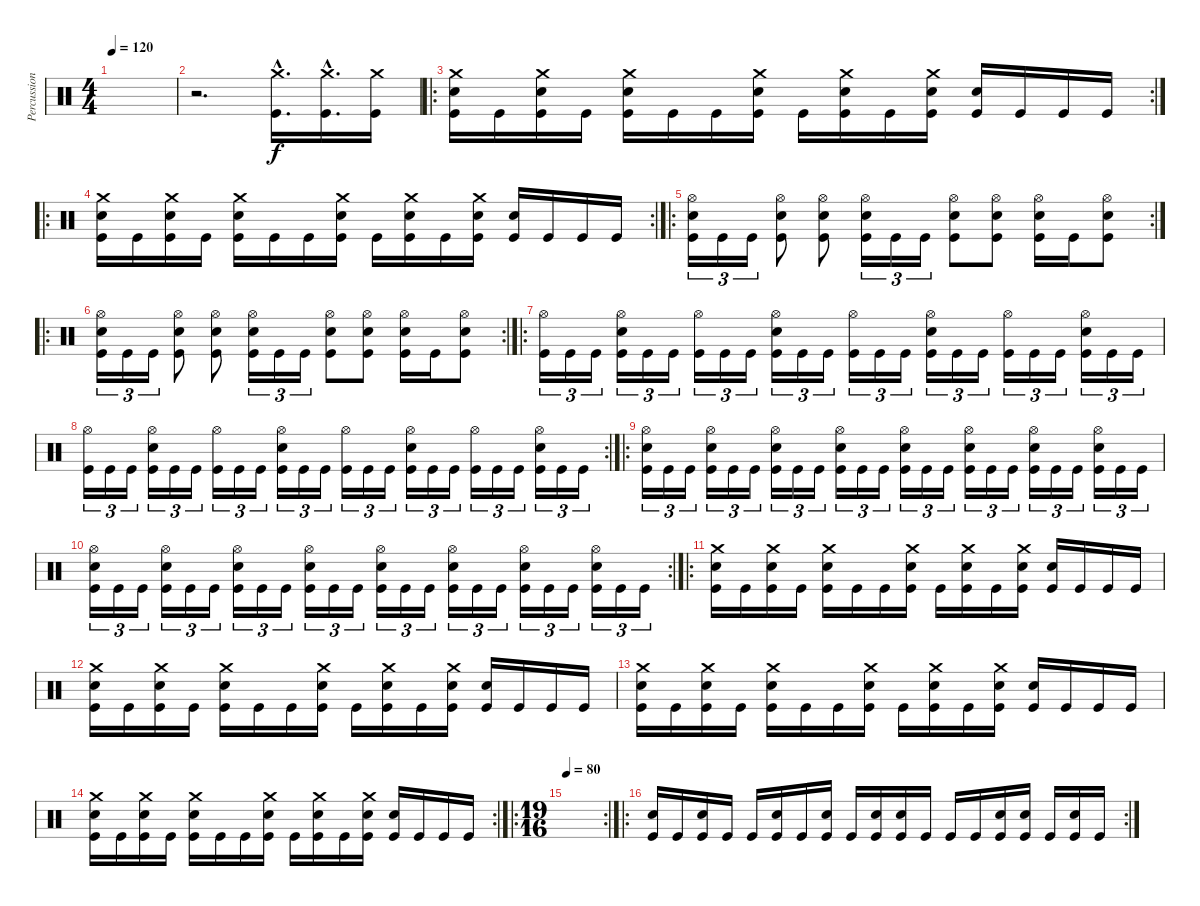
\track ("Percussion" "Percussion") {instrument percussion}
\staff {score}
\articulation defaults
\ts (4 4)
\tempo 120
\clef neutral
\ks c
|
r.2{d} ("Crash medium (hit)"{hac} "Kick (hit)"{hac}).16{d} ("Crash medium (hit)"{hac} "Kick (hit)"{hac}).16{d} ("Crash medium (hit)" "Kick (hit)").16 |
\ro
\rc 2
("Crash medium (hit)" "Snare (hit) 2" "Kick (hit)").16 "Kick (hit)".16 ("Crash medium (hit)" "Snare (hit) 2" "Kick (hit)").16 "Kick (hit)".16 ("Crash medium (hit)" "Snare (hit) 2" "Kick (hit)").16 "Kick (hit)".16 "Kick (hit)".16 ("Crash medium (hit)" "Snare (hit) 2" "Kick (hit)").16 "Kick (hit)".16 ("Crash medium (hit)" "Snare (hit) 2" "Kick (hit)").16 "Kick (hit)".16 ("Crash medium (hit)" "Snare (hit) 2" "Kick (hit)").16 ("Snare (hit) 2" "Kick (hit)").16 "Kick (hit)".16 "Kick (hit)".16 "Kick (hit)".16 |
\ro
\rc 2
("Crash medium (hit)" "Snare (hit) 2" "Kick (hit)").16 "Kick (hit)".16 ("Crash medium (hit)" "Snare (hit) 2" "Kick (hit)").16 "Kick (hit)".16 ("Crash medium (hit)" "Snare (hit) 2" "Kick (hit)").16 "Kick (hit)".16 "Kick (hit)".16 ("Crash medium (hit)" "Snare (hit) 2" "Kick (hit)").16 "Kick (hit)".16 ("Crash medium (hit)" "Snare (hit) 2" "Kick (hit)").16 "Kick (hit)".16 ("Crash medium (hit)" "Snare (hit) 2" "Kick (hit)").16 ("Snare (hit) 2" "Kick (hit)").16 "Kick (hit)".16 "Kick (hit)".16 "Kick (hit)".16 |
\ro
\rc 2
("Hi-Hat (open)" "Snare (hit) 2" "Kick (hit)").16{tu (3 2)} "Kick (hit)".16{tu (3 2)} "Kick (hit)".16{tu (3 2)} ("Hi-Hat (open)" "Snare (hit) 2" "Kick (hit)").8 ("Hi-Hat (open)" "Snare (hit) 2" "Kick (hit)").8 ("Hi-Hat (open)" "Snare (hit) 2" "Kick (hit)").16{tu (3 2)} "Kick (hit)".16{tu (3 2)} "Kick (hit)".16{tu (3 2)} ("Hi-Hat (open)" "Snare (hit) 2" "Kick (hit)").8 ("Hi-Hat (open)" "Snare (hit) 2" "Kick (hit)").8 ("Hi-Hat (open)" "Snare (hit) 2" "Kick (hit)").16 "Kick (hit)".16 ("Hi-Hat (open)" "Snare (hit) 2" "Kick (hit)").8 |
\ro
\rc 2
("Hi-Hat (open)" "Snare (hit) 2" "Kick (hit)").16{tu (3 2)} "Kick (hit)".16{tu (3 2)} "Kick (hit)".16{tu (3 2)} ("Hi-Hat (open)" "Snare (hit) 2" "Kick (hit)").8 ("Hi-Hat (open)" "Snare (hit) 2" "Kick (hit)").8 ("Hi-Hat (open)" "Snare (hit) 2" "Kick (hit)").16{tu (3 2)} "Kick (hit)".16{tu (3 2)} "Kick (hit)".16{tu (3 2)} ("Hi-Hat (open)" "Snare (hit) 2" "Kick (hit)").8 ("Hi-Hat (open)" "Snare (hit) 2" "Kick (hit)").8 ("Hi-Hat (open)" "Snare (hit) 2" "Kick (hit)").16 "Kick (hit)".16 ("Hi-Hat (open)" "Snare (hit) 2" "Kick (hit)").8 |
\ro
("Hi-Hat (open)" "Kick (hit)").16{tu (3 2)} "Kick (hit)".16{tu (3 2)} "Kick (hit)".16{tu (3 2)} ("Hi-Hat (open)" "Snare (hit) 2" "Kick (hit)").16{tu (3 2)} "Kick (hit)".16{tu (3 2)} "Kick (hit)".16{tu (3 2)} ("Hi-Hat (open)" "Kick (hit)").16{tu (3 2)} "Kick (hit)".16{tu (3 2)} "Kick (hit)".16{tu (3 2)} ("Hi-Hat (open)" "Snare (hit) 2" "Kick (hit)").16{tu (3 2)} "Kick (hit)".16{tu (3 2)} "Kick (hit)".16{tu (3 2)} ("Hi-Hat (open)" "Kick (hit)").16{tu (3 2)} "Kick (hit)".16{tu (3 2)} "Kick (hit)".16{tu (3 2)} ("Hi-Hat (open)" "Snare (hit) 2" "Kick (hit)").16{tu (3 2)} "Kick (hit)".16{tu (3 2)} "Kick (hit)".16{tu (3 2)} ("Hi-Hat (open)" "Kick (hit)").16{tu (3 2)} "Kick (hit)".16{tu (3 2)} "Kick (hit)".16{tu (3 2)} ("Hi-Hat (open)" "Snare (hit) 2" "Kick (hit)").16{tu (3 2)} "Kick (hit)".16{tu (3 2)} "Kick (hit)".16{tu (3 2)} |
\rc 2
("Hi-Hat (open)" "Kick (hit)").16{tu (3 2)} "Kick (hit)".16{tu (3 2)} "Kick (hit)".16{tu (3 2)} ("Hi-Hat (open)" "Snare (hit) 2" "Kick (hit)").16{tu (3 2)} "Kick (hit)".16{tu (3 2)} "Kick (hit)".16{tu (3 2)} ("Hi-Hat (open)" "Kick (hit)").16{tu (3 2)} "Kick (hit)".16{tu (3 2)} "Kick (hit)".16{tu (3 2)} ("Hi-Hat (open)" "Snare (hit) 2" "Kick (hit)").16{tu (3 2)} "Kick (hit)".16{tu (3 2)} "Kick (hit)".16{tu (3 2)} ("Hi-Hat (open)" "Kick (hit)").16{tu (3 2)} "Kick (hit)".16{tu (3 2)} "Kick (hit)".16{tu (3 2)} ("Hi-Hat (open)" "Snare (hit) 2" "Kick (hit)").16{tu (3 2)} "Kick (hit)".16{tu (3 2)} "Kick (hit)".16{tu (3 2)} ("Hi-Hat (open)" "Kick (hit)").16{tu (3 2)} "Kick (hit)".16{tu (3 2)} "Kick (hit)".16{tu (3 2)} ("Hi-Hat (open)" "Snare (hit) 2" "Kick (hit)").16{tu (3 2)} "Kick (hit)".16{tu (3 2)} "Kick (hit)".16{tu (3 2)} |
\ro
("Hi-Hat (open)" "Snare (hit) 2" "Kick (hit)").16{tu (3 2)} "Kick (hit)".16{tu (3 2)} "Kick (hit)".16{tu (3 2)} ("Hi-Hat (open)" "Snare (hit) 2" "Kick (hit)").16{tu (3 2)} "Kick (hit)".16{tu (3 2)} "Kick (hit)".16{tu (3 2)} ("Hi-Hat (open)" "Snare (hit) 2" "Kick (hit)").16{tu (3 2)} "Kick (hit)".16{tu (3 2)} "Kick (hit)".16{tu (3 2)} ("Hi-Hat (open)" "Snare (hit) 2" "Kick (hit)").16{tu (3 2)} "Kick (hit)".16{tu (3 2)} "Kick (hit)".16{tu (3 2)} ("Hi-Hat (open)" "Snare (hit) 2" "Kick (hit)").16{tu (3 2)} "Kick (hit)".16{tu (3 2)} "Kick (hit)".16{tu (3 2)} ("Hi-Hat (open)" "Snare (hit) 2" "Kick (hit)").16{tu (3 2)} "Kick (hit)".16{tu (3 2)} "Kick (hit)".16{tu (3 2)} ("Hi-Hat (open)" "Snare (hit) 2" "Kick (hit)").16{tu (3 2)} "Kick (hit)".16{tu (3 2)} "Kick (hit)".16{tu (3 2)} ("Hi-Hat (open)" "Snare (hit) 2" "Kick (hit)").16{tu (3 2)} "Kick (hit)".16{tu (3 2)} "Kick (hit)".16{tu (3 2)} |
\rc 2
("Hi-Hat (open)" "Snare (hit) 2" "Kick (hit)").16{tu (3 2)} "Kick (hit)".16{tu (3 2)} "Kick (hit)".16{tu (3 2)} ("Hi-Hat (open)" "Snare (hit) 2" "Kick (hit)").16{tu (3 2)} "Kick (hit)".16{tu (3 2)} "Kick (hit)".16{tu (3 2)} ("Hi-Hat (open)" "Snare (hit) 2" "Kick (hit)").16{tu (3 2)} "Kick (hit)".16{tu (3 2)} "Kick (hit)".16{tu (3 2)} ("Hi-Hat (open)" "Snare (hit) 2" "Kick (hit)").16{tu (3 2)} "Kick (hit)".16{tu (3 2)} "Kick (hit)".16{tu (3 2)} ("Hi-Hat (open)" "Snare (hit) 2" "Kick (hit)").16{tu (3 2)} "Kick (hit)".16{tu (3 2)} "Kick (hit)".16{tu (3 2)} ("Hi-Hat (open)" "Snare (hit) 2" "Kick (hit)").16{tu (3 2)} "Kick (hit)".16{tu (3 2)} "Kick (hit)".16{tu (3 2)} ("Hi-Hat (open)" "Snare (hit) 2" "Kick (hit)").16{tu (3 2)} "Kick (hit)".16{tu (3 2)} "Kick (hit)".16{tu (3 2)} ("Hi-Hat (open)" "Snare (hit) 2" "Kick (hit)").16{tu (3 2)} "Kick (hit)".16{tu (3 2)} "Kick (hit)".16{tu (3 2)} |
\ro
("Crash medium (hit)" "Snare (hit) 2" "Kick (hit)").16 "Kick (hit)".16 ("Crash medium (hit)" "Snare (hit) 2" "Kick (hit)").16 "Kick (hit)".16 ("Crash medium (hit)" "Snare (hit) 2" "Kick (hit)").16 "Kick (hit)".16 "Kick (hit)".16 ("Crash medium (hit)" "Snare (hit) 2" "Kick (hit)").16 "Kick (hit)".16 ("Crash medium (hit)" "Snare (hit) 2" "Kick (hit)").16 "Kick (hit)".16 ("Crash medium (hit)" "Snare (hit) 2" "Kick (hit)").16 ("Snare (hit) 2" "Kick (hit)").16 "Kick (hit)".16 "Kick (hit)".16 "Kick (hit)".16 |
("Crash medium (hit)" "Snare (hit) 2" "Kick (hit)").16 "Kick (hit)".16 ("Crash medium (hit)" "Snare (hit) 2" "Kick (hit)").16 "Kick (hit)".16 ("Crash medium (hit)" "Snare (hit) 2" "Kick (hit)").16 "Kick (hit)".16 "Kick (hit)".16 ("Crash medium (hit)" "Snare (hit) 2" "Kick (hit)").16 "Kick (hit)".16 ("Crash medium (hit)" "Snare (hit) 2" "Kick (hit)").16 "Kick (hit)".16 ("Crash medium (hit)" "Snare (hit) 2" "Kick (hit)").16 ("Snare (hit) 2" "Kick (hit)").16 "Kick (hit)".16 "Kick (hit)".16 "Kick (hit)".16 |
("Crash medium (hit)" "Snare (hit) 2" "Kick (hit)").16 "Kick (hit)".16 ("Crash medium (hit)" "Snare (hit) 2" "Kick (hit)").16 "Kick (hit)".16 ("Crash medium (hit)" "Snare (hit) 2" "Kick (hit)").16 "Kick (hit)".16 "Kick (hit)".16 ("Crash medium (hit)" "Snare (hit) 2" "Kick (hit)").16 "Kick (hit)".16 ("Crash medium (hit)" "Snare (hit) 2" "Kick (hit)").16 "Kick (hit)".16 ("Crash medium (hit)" "Snare (hit) 2" "Kick (hit)").16 ("Snare (hit) 2" "Kick (hit)").16 "Kick (hit)".16 "Kick (hit)".16 "Kick (hit)".16 |
\rc 2
("Crash medium (hit)" "Snare (hit) 2" "Kick (hit)").16 "Kick (hit)".16 ("Crash medium (hit)" "Snare (hit) 2" "Kick (hit)").16 "Kick (hit)".16 ("Crash medium (hit)" "Snare (hit) 2" "Kick (hit)").16 "Kick (hit)".16 "Kick (hit)".16 ("Crash medium (hit)" "Snare (hit) 2" "Kick (hit)").16 "Kick (hit)".16 ("Crash medium (hit)" "Snare (hit) 2" "Kick (hit)").16 "Kick (hit)".16 ("Crash medium (hit)" "Snare (hit) 2" "Kick (hit)").16 ("Snare (hit) 2" "Kick (hit)").16 "Kick (hit)".16 "Kick (hit)".16 "Kick (hit)".16 |
\ro
\rc 2
\ts (19 16)
\tempo 80
|
\ro
\rc 2
("Snare (hit) 2" "Kick (hit)").16 "Kick (hit)".16 ("Snare (hit) 2" "Kick (hit)").16 "Kick (hit)".16 "Kick (hit)".16 ("Snare (hit) 2" "Kick (hit)").16 "Kick (hit)".16 ("Snare (hit) 2" "Kick (hit)").16 "Kick (hit)".16 ("Snare (hit) 2" "Kick (hit)").16 ("Snare (hit) 2" "Kick (hit)").16 "Kick (hit)".16 "Kick (hit)".16 "Kick (hit)".16 ("Snare (hit) 2" "Kick (hit)").16 ("Snare (hit) 2" "Kick (hit)").16 "Kick (hit)".16 ("Snare (hit) 2" "Kick (hit)").16 "Kick (hit)".16
